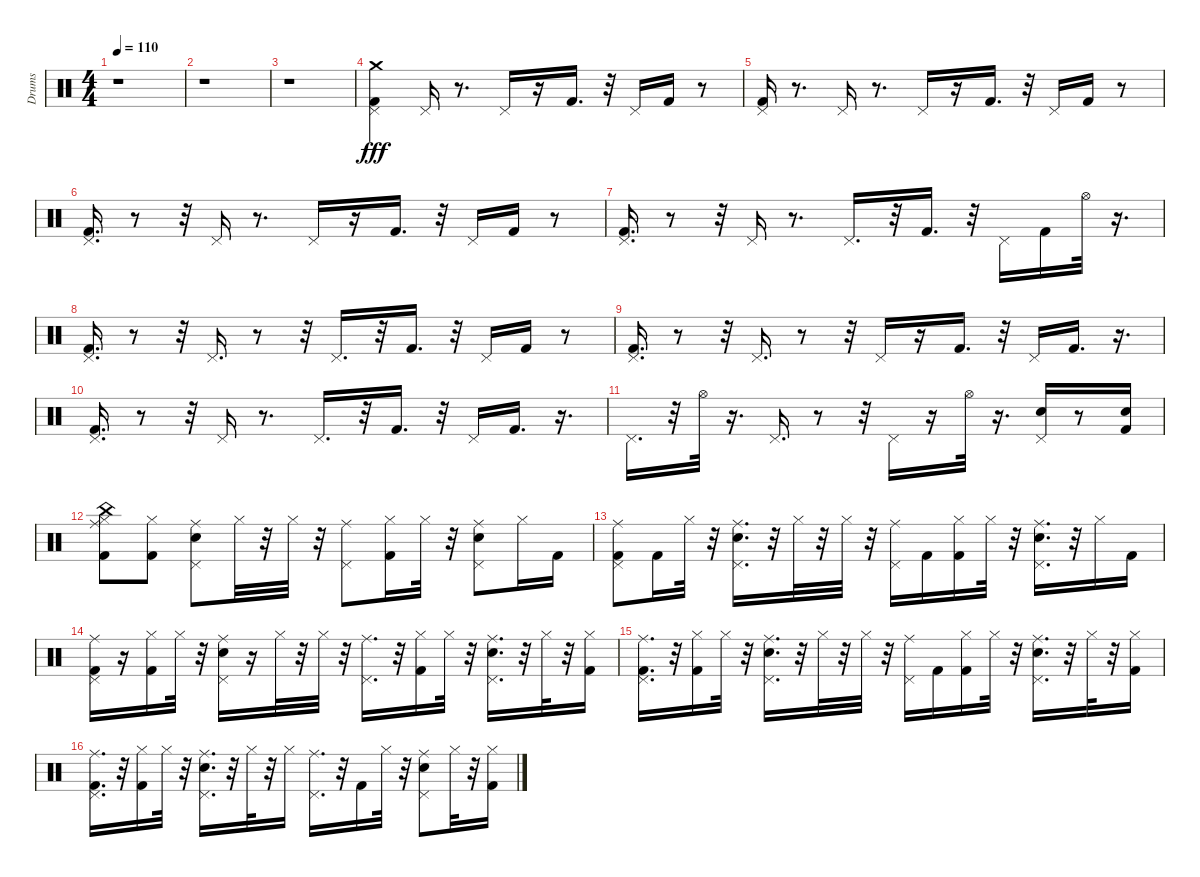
\track ("Drums" "Drums") {instrument percussion}
\staff {score}
\articulation defaults
\ts (4 4)
\tempo 110
\clef neutral
\ks c
r.1{dy fff} |
r.1 |
r.1 |
("Kick (hit) 2" "Pedal Hi-Hat (hit)" "Crash medium (hit)").4 "Pedal Hi-Hat (hit)".16 r.8{d} "Pedal Hi-Hat (hit)".16 r.16 "Kick (hit) 2".16{d} r.32 "Pedal Hi-Hat (hit)".16 "Kick (hit) 2".16 r.8 |
("Kick (hit) 2" "Pedal Hi-Hat (hit)").16 r.8{d} "Pedal Hi-Hat (hit)".16 r.8{d} "Pedal Hi-Hat (hit)".16 r.16 "Kick (hit) 2".16{d} r.32 "Pedal Hi-Hat (hit)".16 "Kick (hit) 2".16 r.8 |
("Kick (hit) 2" "Pedal Hi-Hat (hit)").16{d} r.8 r.32 "Pedal Hi-Hat (hit)".16 r.8{d} "Pedal Hi-Hat (hit)".16 r.16 "Kick (hit) 2".16{d} r.32 "Pedal Hi-Hat (hit)".16 "Kick (hit) 2".16 r.8 |
("Kick (hit) 2" "Pedal Hi-Hat (hit)").16{d} r.8 r.32 "Pedal Hi-Hat (hit)".16 r.8{d} "Pedal Hi-Hat (hit)".16{d} r.32 "Kick (hit) 2".16{d} r.32 "Pedal Hi-Hat (hit)".16 "Kick (hit) 2".16 "Hi-Hat (open)".32 r.16{d} |
("Kick (hit) 2" "Pedal Hi-Hat (hit)").16{d} r.8 r.32 "Pedal Hi-Hat (hit)".16{d} r.8 r.32 "Pedal Hi-Hat (hit)".16{d} r.32 "Kick (hit) 2".16{d} r.32 "Pedal Hi-Hat (hit)".16 "Kick (hit) 2".16 r.8 |
("Kick (hit) 2" "Pedal Hi-Hat (hit)").16{d} r.8 r.32 "Pedal Hi-Hat (hit)".16{d} r.8 r.32 "Pedal Hi-Hat (hit)".16 r.16 "Kick (hit) 2".16{d} r.32 "Pedal Hi-Hat (hit)".16 "Kick (hit) 2".16{d} r.16{d} |
("Kick (hit) 2" "Pedal Hi-Hat (hit)").16{d} r.8 r.32 "Pedal Hi-Hat (hit)".16 r.8{d} "Pedal Hi-Hat (hit)".16{d} r.32 "Kick (hit) 2".16{d} r.32 "Pedal Hi-Hat (hit)".16 "Kick (hit) 2".16{d} r.16{d} |
"Pedal Hi-Hat (hit)".16{d} r.32 "Hi-Hat (open)".32 r.16{d} "Pedal Hi-Hat (hit)".16{d} r.8 r.32 "Pedal Hi-Hat (hit)".16 r.16 "Hi-Hat (open)".32 r.16{d} ("Snare (hit) 2" "Pedal Hi-Hat (hit)").16 r.8 ("Kick (hit) 2" "Snare (hit) 2").16 |
("Kick (hit) 2" "Hi-Hat (closed)" "Ride (middle)" "China (hit)").8 ("Kick (hit) 2" "Hi-Hat (closed)").8 ("Snare (hit) 2" "Pedal Hi-Hat (hit)" "Ride (middle)").8 "Hi-Hat (closed)".32 r.32 "Hi-Hat (closed)".32 r.32 ("Pedal Hi-Hat (hit)" "Ride (middle)").8 ("Kick (hit) 2" "Hi-Hat (closed)").16 "Hi-Hat (closed)".32 r.32 ("Snare (hit) 2" "Pedal Hi-Hat (hit)" "Ride (middle)").8 "Hi-Hat (closed)".16 "Kick (hit) 2".16 |
("Kick (hit) 2" "Pedal Hi-Hat (hit)" "Ride (middle)").8 "Kick (hit) 2".16 "Hi-Hat (closed)".32 r.32 ("Snare (hit) 2" "Pedal Hi-Hat (hit)" "Ride (middle)").16{d} r.32 "Hi-Hat (closed)".32 r.32 "Hi-Hat (closed)".32 r.32 ("Pedal Hi-Hat (hit)" "Ride (middle)").16 "Kick (hit) 2".16 ("Kick (hit) 2" "Hi-Hat (closed)").16 "Hi-Hat (closed)".32 r.32 ("Snare (hit) 2" "Pedal Hi-Hat (hit)" "Ride (middle)").16{d} r.32 "Hi-Hat (closed)".16 "Kick (hit) 2".16 |
("Kick (hit) 2" "Pedal Hi-Hat (hit)" "Ride (middle)").16 r.16 ("Kick (hit) 2" "Hi-Hat (closed)").16 "Hi-Hat (closed)".32 r.32 ("Snare (hit) 2" "Pedal Hi-Hat (hit)" "Ride (middle)").16 r.16 "Hi-Hat (closed)".32 r.32 "Hi-Hat (closed)".32 r.32 ("Pedal Hi-Hat (hit)" "Ride (middle)").16{d} r.32 ("Kick (hit) 2" "Hi-Hat (closed)").16 "Hi-Hat (closed)".32 r.32 ("Snare (hit) 2" "Pedal Hi-Hat (hit)" "Ride (middle)").16{d} r.32 "Hi-Hat (closed)".32 r.32 ("Kick (hit) 2" "Hi-Hat (closed)").16 |
("Kick (hit) 2" "Pedal Hi-Hat (hit)" "Ride (middle)").16{d} r.32 ("Kick (hit) 2" "Hi-Hat (closed)").16 "Hi-Hat (closed)".32 r.32 ("Snare (hit) 2" "Pedal Hi-Hat (hit)" "Ride (middle)").16{d} r.32 "Hi-Hat (closed)".32 r.32 "Hi-Hat (closed)".32 r.32 ("Pedal Hi-Hat (hit)" "Ride (middle)").16 "Kick (hit) 2".16 ("Kick (hit) 2" "Hi-Hat (closed)").16 "Hi-Hat (closed)".32 r.32 ("Snare (hit) 2" "Pedal Hi-Hat (hit)" "Ride (middle)").16{d} r.32 "Hi-Hat (closed)".32 r.32 ("Kick (hit) 2" "Hi-Hat (closed)").16 |
("Kick (hit) 2" "Pedal Hi-Hat (hit)" "Ride (middle)").16{d} r.32 ("Kick (hit) 2" "Hi-Hat (closed)").16 "Hi-Hat (closed)".32 r.32 ("Snare (hit) 2" "Pedal Hi-Hat (hit)" "Ride (middle)").16{d} r.32 "Hi-Hat (closed)".32 r.32 "Hi-Hat (closed)".16 ("Pedal Hi-Hat (hit)" "Ride (middle)").16{d} r.32 "Kick (hit) 2".16 "Hi-Hat (closed)".32 r.32 ("Snare (hit) 2" "Pedal Hi-Hat (hit)" "Ride (middle)").8 "Hi-Hat (closed)".32 r.32 ("Kick (hit) 2" "Hi-Hat (closed)").16
